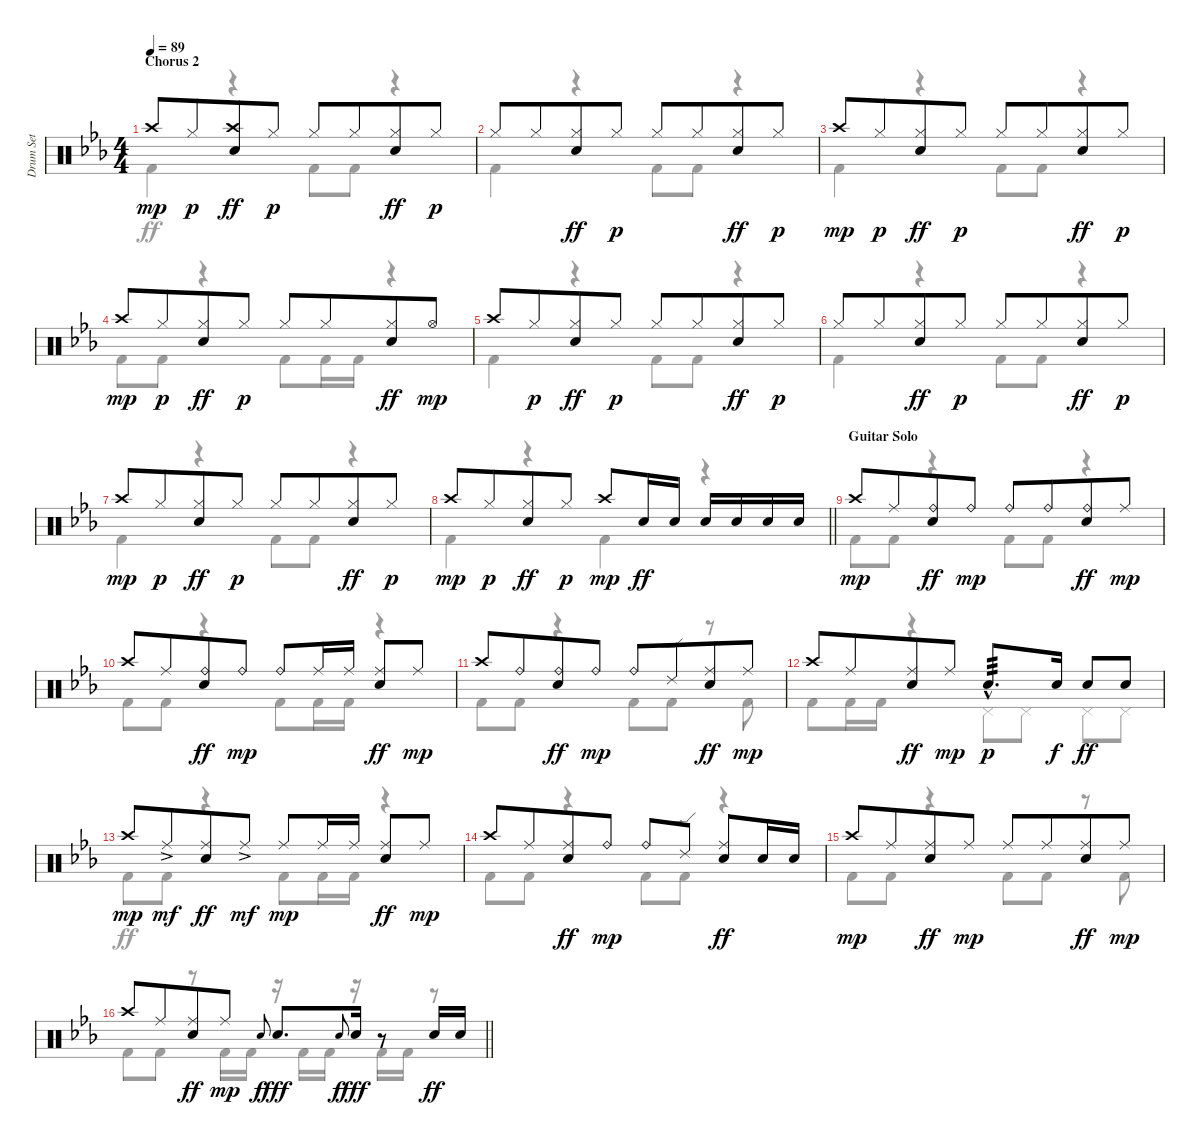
\track ("Drum Set" "Drum Set") {instrument percussion}
\staff {score}
\articulation defaults
\voice
\ts (4 4)
\section ("" "Chorus 2")
\tempo 89
\clef neutral
\ks eb "Crash high (hit)".8{dy mp} "Hi-Hat (closed)".8{dy p beam merge}
("Crash high (hit)" "Electric Snare (hit)").8{dy ff} "Hi-Hat (closed)".8{dy p} "Hi-Hat (closed)".8 "Hi-Hat (closed)".8{beam merge} ("Hi-Hat (closed)" "Electric Snare (hit)").8{dy ff} "Hi-Hat (closed)".8{dy p} |
"Hi-Hat (closed)".8 "Hi-Hat (closed)".8{beam merge} ("Hi-Hat (closed)" "Electric Snare (hit)").8{dy ff} "Hi-Hat (closed)".8{dy p} "Hi-Hat (closed)".8 "Hi-Hat (closed)".8{beam merge} ("Hi-Hat (closed)" "Electric Snare (hit)").8{dy ff} "Hi-Hat (closed)".8{dy p} |
"Crash high (hit)".8{dy mp} "Hi-Hat (closed)".8{dy p beam merge} ("Hi-Hat (closed)" "Electric Snare (hit)").8{dy ff} "Hi-Hat (closed)".8{dy p} "Hi-Hat (closed)".8 "Hi-Hat (closed)".8{beam merge} ("Hi-Hat (closed)" "Electric Snare (hit)").8{dy ff} "Hi-Hat (closed)".8{dy p} |
"Crash high (hit)".8{dy mp} "Hi-Hat (closed)".8{dy p beam merge} ("Hi-Hat (closed)" "Electric Snare (hit)").8{dy ff} "Hi-Hat (closed)".8{dy p} "Hi-Hat (closed)".8 "Hi-Hat (closed)".8{beam merge} ("Hi-Hat (closed)" "Electric Snare (hit)").8{dy ff} "Hi-Hat (open)".8{dy mp} |
"Crash high (hit)".8 "Hi-Hat (closed)".8{dy p beam merge} ("Hi-Hat (closed)" "Electric Snare (hit)").8{dy ff} "Hi-Hat (closed)".8{dy p} "Hi-Hat (closed)".8 "Hi-Hat (closed)".8{beam merge} ("Hi-Hat (closed)" "Electric Snare (hit)").8{dy ff} "Hi-Hat (closed)".8{dy p} |
"Hi-Hat (closed)".8 "Hi-Hat (closed)".8{beam merge} ("Hi-Hat (closed)" "Electric Snare (hit)").8{dy ff} "Hi-Hat (closed)".8{dy p} "Hi-Hat (closed)".8 "Hi-Hat (closed)".8{beam merge} ("Hi-Hat (closed)" "Electric Snare (hit)").8{dy ff} "Hi-Hat (closed)".8{dy p} |
"Crash high (hit)".8{dy mp} "Hi-Hat (closed)".8{dy p beam merge} ("Hi-Hat (closed)" "Electric Snare (hit)").8{dy ff} "Hi-Hat (closed)".8{dy p} "Hi-Hat (closed)".8 "Hi-Hat (closed)".8{beam merge} ("Hi-Hat (closed)" "Electric Snare (hit)").8{dy ff} "Hi-Hat (closed)".8{dy p} |
\barLineRight lightlight "Crash high (hit)".8{dy mp} "Hi-Hat (closed)".8{dy p beam merge}
("Hi-Hat (closed)" "Electric Snare (hit)").8{dy ff} "Hi-Hat (closed)".8{dy p} "Crash high (hit)".8{dy mp} "Electric Snare (hit)".16{dy ff} "Electric Snare (hit)".16 "Electric Snare (hit)".16 "Electric Snare (hit)".16 "Electric Snare (hit)".16 "Electric Snare (hit)".16 |
\section ("" "Guitar Solo")
"Crash high (hit)".8{dy mp} "Ride (middle)".8{beam merge} ("Ride (bell)" "Electric Snare (hit)").8{dy ff} "Ride (bell)".8{dy mp} "Ride (bell)".8 "Ride (bell)".8{beam merge} ("Ride (bell)" "Electric Snare (hit)").8{dy ff} "Ride (middle)".8{dy mp} |
"Crash high (hit)".8 "Ride (middle)".8{beam merge} ("Ride (bell)" "Electric Snare (hit)").8{dy ff} "Ride (bell)".8{dy mp} "Ride (bell)".8 "Ride (middle)".16 "Ride (middle)".16 ("Ride (middle)" "Electric Snare (hit)").8{dy ff} "Ride (middle)".8{dy mp} |
"Crash high (hit)".8 "Ride (bell)".8{beam merge} ("Ride (bell)" "Electric Snare (hit)").8{dy ff} "Ride (bell)".8{dy mp} "Ride (bell)".8 "Ride (edge) 2".8{beam merge} ("Ride (middle)" "Electric Snare (hit)").8{dy ff} "Ride (middle)".8{dy mp} |
"Crash high (hit)".8 "Ride (middle)".8{beam merge} ("Ride (middle)" "Electric Snare (hit)").8{dy ff} "Ride (middle)".8{dy mp} "Electric Snare (hit)"{hac}.8{d tp 3 dy p} "Electric Snare (hit)".16{dy f} "Electric Snare (hit)".8{dy ff} "Electric Snare (hit)".8 |
"Crash high (hit)".8{dy mp} "Ride (middle)"{ac}.8{dy mf beam merge} ("Ride (middle)" "Electric Snare (hit)").8{dy ff} "Ride (middle)"{ac}.8{dy mf} "Ride (middle)".8{dy mp} "Ride (middle)".16 "Ride (middle)".16 ("Ride (middle)" "Electric Snare (hit)").8{dy ff} "Ride (middle)".8{dy mp} |
"Crash high (hit)".8 "Ride (middle)".8{beam merge} ("Ride (middle)" "Electric Snare (hit)").8{dy ff} "Ride (bell)".8{dy mp} "Ride (bell)".8 "Ride (edge) 2".8 ("Ride (middle)" "Electric Snare (hit)").8{dy ff} "Electric Snare (hit)".16 "Electric Snare (hit)".16 |
"Crash high (hit)".8{dy mp} "Ride (middle)".8{beam merge} ("Ride (middle)" "Electric Snare (hit)").8{dy ff} "Ride (middle)".8{dy mp} "Ride (middle)".8 "Ride (middle)".8{beam merge} ("Ride (middle)" "Electric Snare (hit)").8{dy ff} "Ride (middle)".8{dy mp} |
\barLineRight lightlight "Crash high (hit)".8 "Ride (middle)".8{beam merge}
("Ride (middle)" "Electric Snare (hit)").8{dy ff} "Ride (middle)".8{dy mp} "Electric Snare (hit)".8{gr onbeat dy f} "Electric Snare (hit)".8{d dy fff} "Electric Snare (hit)".8{gr onbeat dy f} "Electric Snare (hit)".16{dy fff} r.8 "Electric Snare (hit)".16{dy ff} "Electric Snare (hit)".16
\voice
\clef neutral
\ottava regular
\simile none
\ks eb "Kick (hit) 2".4{dy ff}
r.4 "Kick (hit) 2".8 "Kick (hit) 2".8 r.4 |
"Kick (hit) 2".4 r.4 "Kick (hit) 2".8 "Kick (hit) 2".8 r.4 |
"Kick (hit) 2".4 r.4 "Kick (hit) 2".8 "Kick (hit) 2".8 r.4 |
"Kick (hit) 2".8 "Kick (hit) 2".8 r.4 "Kick (hit) 2".8 "Kick (hit) 2".16 "Kick (hit) 2".16 r.4 |
"Kick (hit) 2".4 r.4 "Kick (hit) 2".8 "Kick (hit) 2".8 r.4 |
"Kick (hit) 2".4 r.4 "Kick (hit) 2".8 "Kick (hit) 2".8 r.4 |
"Kick (hit) 2".4 r.4 "Kick (hit) 2".8 "Kick (hit) 2".8 r.4 |
\barLineRight lightlight "Kick (hit) 2".4
r.4 "Kick (hit) 2".4 r.4 |
"Kick (hit) 2".8 "Kick (hit) 2".8 r.4 "Kick (hit) 2".8 "Kick (hit) 2".8 r.4 |
"Kick (hit) 2".8 "Kick (hit) 2".8 r.4 "Kick (hit) 2".8 "Kick (hit) 2".16 "Kick (hit) 2".16 r.4 |
"Kick (hit) 2".8 "Kick (hit) 2".8 r.4 "Kick (hit) 2".8 "Kick (hit) 2".8 r.8 "Kick (hit) 2".8 |
"Kick (hit) 2".8 "Kick (hit) 2".16 "Kick (hit) 2".16 r.4 "Pedal Hi-Hat (hit)".8{dy p} "Pedal Hi-Hat (hit)".8 "Pedal Hi-Hat (hit)".8 "Pedal Hi-Hat (hit)".8 |
"Kick (hit) 2".8{dy ff} "Kick (hit) 2".8 r.4 "Kick (hit) 2".8 "Kick (hit) 2".16 "Kick (hit) 2".16 r.4 |
"Kick (hit) 2".8 "Kick (hit) 2".8 r.4 "Kick (hit) 2".8 "Kick (hit) 2".8 r.4 |
"Kick (hit) 2".8 "Kick (hit) 2".8 r.4 "Kick (hit) 2".8 "Kick (hit) 2".8 r.8 "Kick (hit) 2".8 |
\barLineRight lightlight "Kick (hit) 2".8 "Kick (hit) 2".8
r.8 "Kick (hit) 2".16 "Kick (hit) 2".16 r.16 "Kick (hit) 2".16 "Kick (hit) 2".16 r.16 "Kick (hit) 2".16 "Kick (hit) 2".16 r.8
